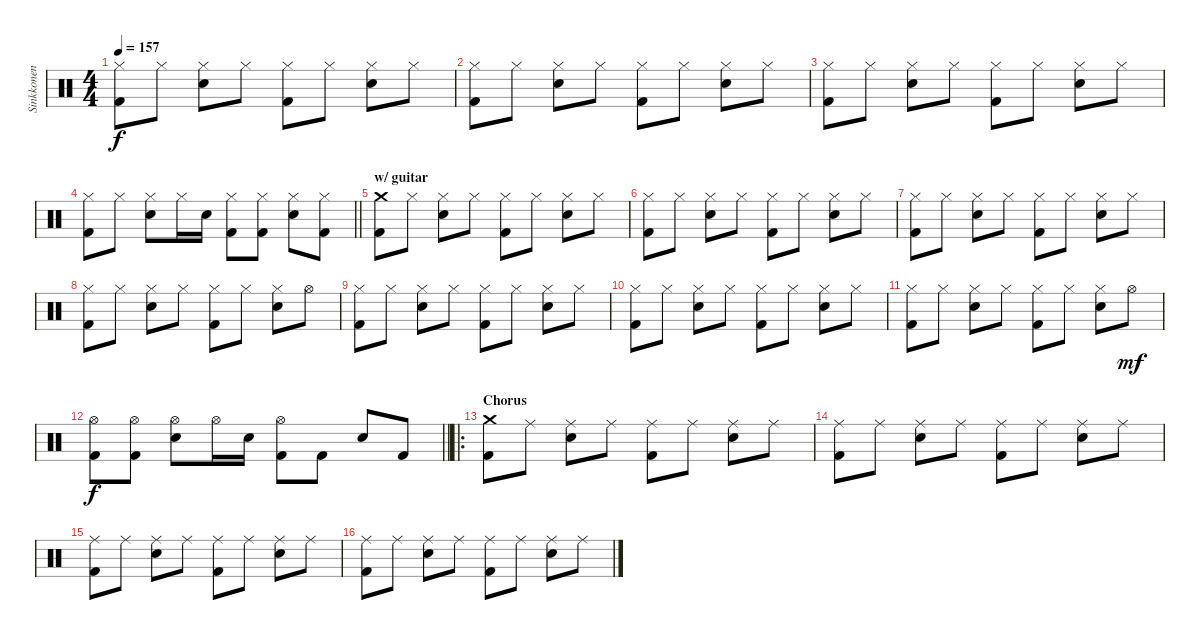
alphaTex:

\track ("Sinkkonen" "Sinkkonen") {instrument percussion}
\staff {score}
\articulation defaults
\ts (4 4)
\tempo 157
\clef neutral
\ks c
("Kick (hit) 2" "Hi-Hat (closed)").8{dy f} "Hi-Hat (closed)".8 ("Snare (hit) 2" "Hi-Hat (closed)").8 "Hi-Hat (closed)".8 ("Kick (hit) 2" "Hi-Hat (closed)").8 "Hi-Hat (closed)".8 ("Snare (hit) 2" "Hi-Hat (closed)").8 "Hi-Hat (closed)".8 |
("Kick (hit) 2" "Hi-Hat (closed)").8 "Hi-Hat (closed)".8 ("Snare (hit) 2" "Hi-Hat (closed)").8 "Hi-Hat (closed)".8 ("Kick (hit) 2" "Hi-Hat (closed)").8 "Hi-Hat (closed)".8 ("Snare (hit) 2" "Hi-Hat (closed)").8 "Hi-Hat (closed)".8 |
("Kick (hit) 2" "Hi-Hat (closed)").8 "Hi-Hat (closed)".8 ("Snare (hit) 2" "Hi-Hat (closed)").8 "Hi-Hat (closed)".8 ("Kick (hit) 2" "Hi-Hat (closed)").8 "Hi-Hat (closed)".8 ("Snare (hit) 2" "Hi-Hat (closed)").8 "Hi-Hat (closed)".8 |
\barLineRight lightlight
("Kick (hit) 2" "Hi-Hat (closed)").8 "Hi-Hat (closed)".8 ("Hi-Hat (closed)" "Snare (hit) 2").8 "Hi-Hat (closed)".16 "Snare (hit) 2".16 ("Kick (hit) 2" "Hi-Hat (closed)").8 ("Kick (hit) 2" "Hi-Hat (closed)").8 ("Hi-Hat (closed)" "Snare (hit) 2").8 ("Kick (hit) 2" "Hi-Hat (closed)").8 |
\section ("" "w/ guitar")
("Kick (hit) 2" "Crash medium (hit)").8 "Hi-Hat (closed)".8 ("Hi-Hat (closed)" "Snare (hit) 2").8 "Hi-Hat (closed)".8 ("Kick (hit) 2" "Hi-Hat (closed)").8 "Hi-Hat (closed)".8 ("Hi-Hat (closed)" "Snare (hit) 2").8 "Hi-Hat (closed)".8 |
("Kick (hit) 2" "Hi-Hat (closed)").8 "Hi-Hat (closed)".8 ("Hi-Hat (closed)" "Snare (hit) 2").8 "Hi-Hat (closed)".8 ("Kick (hit) 2" "Hi-Hat (closed)").8 "Hi-Hat (closed)".8 ("Hi-Hat (closed)" "Snare (hit) 2").8 "Hi-Hat (closed)".8 |
("Kick (hit) 2" "Hi-Hat (closed)").8 "Hi-Hat (closed)".8 ("Hi-Hat (closed)" "Snare (hit) 2").8 "Hi-Hat (closed)".8 ("Kick (hit) 2" "Hi-Hat (closed)").8 "Hi-Hat (closed)".8 ("Hi-Hat (closed)" "Snare (hit) 2").8 "Hi-Hat (closed)".8 |
("Kick (hit) 2" "Hi-Hat (closed)").8 "Hi-Hat (closed)".8 ("Hi-Hat (closed)" "Snare (hit) 2").8 "Hi-Hat (closed)".8 ("Kick (hit) 2" "Hi-Hat (closed)").8 "Hi-Hat (closed)".8 ("Hi-Hat (closed)" "Snare (hit) 2").8 "Hi-Hat (open)".8 |
("Kick (hit) 2" "Hi-Hat (closed)").8 "Hi-Hat (closed)".8 ("Hi-Hat (closed)" "Snare (hit) 2").8 "Hi-Hat (closed)".8 ("Kick (hit) 2" "Hi-Hat (closed)").8 "Hi-Hat (closed)".8 ("Hi-Hat (closed)" "Snare (hit) 2").8 "Hi-Hat (closed)".8 |
("Kick (hit) 2" "Hi-Hat (closed)").8 "Hi-Hat (closed)".8 ("Hi-Hat (closed)" "Snare (hit) 2").8 "Hi-Hat (closed)".8 ("Kick (hit) 2" "Hi-Hat (closed)").8 "Hi-Hat (closed)".8 ("Hi-Hat (closed)" "Snare (hit) 2").8 "Hi-Hat (closed)".8 |
("Kick (hit) 2" "Hi-Hat (closed)").8 "Hi-Hat (closed)".8 ("Hi-Hat (closed)" "Snare (hit) 2").8 "Hi-Hat (closed)".8 ("Kick (hit) 2" "Hi-Hat (closed)").8 "Hi-Hat (closed)".8 ("Hi-Hat (closed)" "Snare (hit) 2").8 "Hi-Hat (open)".8{dy mf} |
\barLineRight lightlight
("Kick (hit) 2" "Hi-Hat (open)").8{dy f} ("Kick (hit) 2" "Hi-Hat (open)").8 ("Hi-Hat (open)" "Snare (hit) 2").8 "Hi-Hat (open)".16 "Snare (hit) 2".16 ("Kick (hit) 2" "Hi-Hat (open)").8 "Kick (hit) 2".8 "Snare (hit) 2".8 "Kick (hit) 2".8 |
\ro
\section ("" "Chorus")
("Kick (hit) 2" "Crash medium (hit)").8 "Ride (middle)".8 ("Ride (middle)" "Snare (hit) 2").8 "Ride (middle)".8 ("Kick (hit) 2" "Ride (middle)").8 "Ride (middle)".8 ("Ride (middle)" "Snare (hit) 2").8 "Ride (middle)".8 |
("Kick (hit) 2" "Ride (middle)").8 "Ride (middle)".8 ("Ride (middle)" "Snare (hit) 2").8 "Ride (middle)".8 ("Kick (hit) 2" "Ride (middle)").8 "Ride (middle)".8 ("Ride (middle)" "Snare (hit) 2").8 "Ride (middle)".8 |
("Kick (hit) 2" "Ride (middle)").8 "Ride (middle)".8 ("Ride (middle)" "Snare (hit) 2").8 "Ride (middle)".8 ("Kick (hit) 2" "Ride (middle)").8 "Ride (middle)".8 ("Ride (middle)" "Snare (hit) 2").8 "Ride (middle)".8 |
("Kick (hit) 2" "Ride (middle)").8 "Ride (middle)".8 ("Ride (middle)" "Snare (hit) 2").8 "Ride (middle)".8 ("Kick (hit) 2" "Ride (middle)").8 "Ride (middle)".8 ("Ride (middle)" "Snare (hit) 2").8 "Ride (middle)".8
